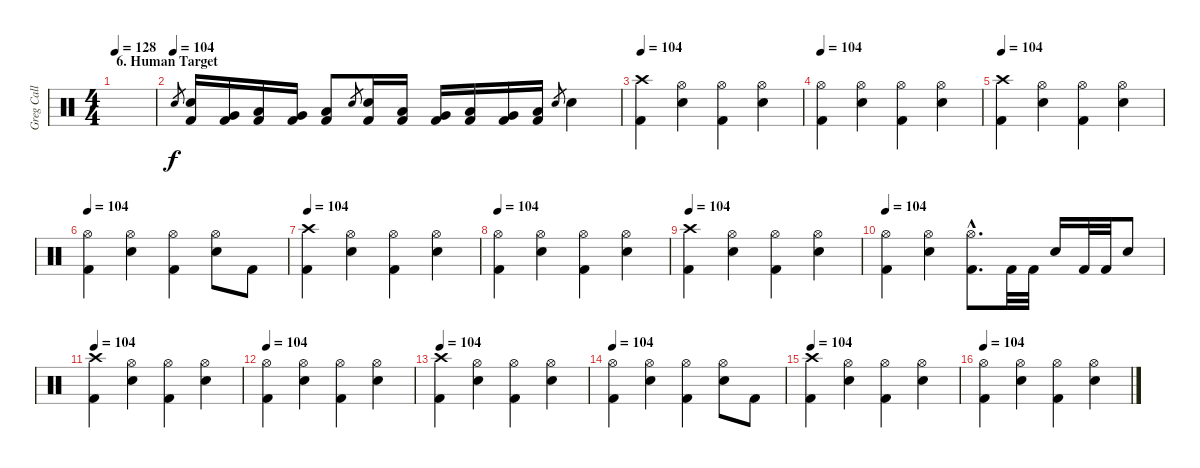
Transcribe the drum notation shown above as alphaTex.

\track ("Greg Call (Drums)" "Greg Call ") {instrument percussion}
\staff {score}
\articulation defaults
\ts (4 4)
\section ("" "6. Human Target")
\tempo 128
\tempo 104
\tempo 128
\clef neutral
\ks c
|
\tempo (104)
"Snare (hit) 2".8{gr} ("Snare (hit) 2" "Kick (hit) 2").16 ("Very Low Tom (hit)" "Kick (hit) 2").16 ("Low Floor Tom (hit)" "Kick (hit) 2").16 ("Very Low Tom (hit)" "Kick (hit) 2").16 ("Low Tom (hit)" "Kick (hit) 2").8 "Snare (hit) 2".8{gr} ("Snare (hit) 2" "Kick (hit) 2").16 ("Low Tom (hit)" "Kick (hit) 2").16 ("Very Low Tom (hit)" "Kick (hit) 2").16 ("Low Floor Tom (hit)" "Kick (hit) 2").16 ("Very Low Tom (hit)" "Kick (hit) 2").16 ("Low Tom (hit)" "Kick (hit) 2").16 "Snare (hit) 2".8{gr} "Snare (hit) 2".4 |
\tempo 104
("Crash high (hit)" "Kick (hit) 2").4 ("Hi-Hat (open)" "Snare (hit) 2").4 ("Hi-Hat (open)" "Kick (hit) 2").4 ("Hi-Hat (open)" "Snare (hit) 2").4 |
\tempo 104
("Hi-Hat (open)" "Kick (hit) 2").4 ("Hi-Hat (open)" "Snare (hit) 2").4 ("Hi-Hat (open)" "Kick (hit) 2").4 ("Hi-Hat (open)" "Snare (hit) 2").4 |
\tempo 104
("Crash high (hit)" "Kick (hit) 2").4 ("Hi-Hat (open)" "Snare (hit) 2").4 ("Hi-Hat (open)" "Kick (hit) 2").4 ("Hi-Hat (open)" "Snare (hit) 2").4 |
\tempo 104
("Hi-Hat (open)" "Kick (hit) 2").4 ("Hi-Hat (open)" "Snare (hit) 2").4 ("Hi-Hat (open)" "Kick (hit) 2").4 ("Hi-Hat (open)" "Snare (hit) 2").8 "Kick (hit) 2".8 |
\tempo 104
("Crash high (hit)" "Kick (hit) 2").4 ("Hi-Hat (open)" "Snare (hit) 2").4 ("Hi-Hat (open)" "Kick (hit) 2").4 ("Hi-Hat (open)" "Snare (hit) 2").4 |
\tempo 104
("Hi-Hat (open)" "Kick (hit) 2").4 ("Hi-Hat (open)" "Snare (hit) 2").4 ("Hi-Hat (open)" "Kick (hit) 2").4 ("Hi-Hat (open)" "Snare (hit) 2").4 |
\tempo 104
("Crash high (hit)" "Kick (hit) 2").4 ("Hi-Hat (open)" "Snare (hit) 2").4 ("Hi-Hat (open)" "Kick (hit) 2").4 ("Hi-Hat (open)" "Snare (hit) 2").4 |
\tempo 104
("Hi-Hat (open)" "Kick (hit) 2").4 ("Hi-Hat (open)" "Snare (hit) 2").4 ("Hi-Hat (open)"{hac} "Kick (hit) 2"{hac}).8{d} "Kick (hit) 2".32 "Kick (hit) 2".32 "Snare (hit) 2".16 "Kick (hit) 2".32 "Kick (hit) 2".32 "Snare (hit) 2".8 |
\tempo 104
("Crash high (hit)" "Kick (hit) 2").4 ("Hi-Hat (open)" "Snare (hit) 2").4 ("Hi-Hat (open)" "Kick (hit) 2").4 ("Hi-Hat (open)" "Snare (hit) 2").4 |
\tempo 104
("Hi-Hat (open)" "Kick (hit) 2").4 ("Hi-Hat (open)" "Snare (hit) 2").4 ("Hi-Hat (open)" "Kick (hit) 2").4 ("Hi-Hat (open)" "Snare (hit) 2").4 |
\tempo 104
("Crash high (hit)" "Kick (hit) 2").4 ("Hi-Hat (open)" "Snare (hit) 2").4 ("Hi-Hat (open)" "Kick (hit) 2").4 ("Hi-Hat (open)" "Snare (hit) 2").4 |
\tempo 104
("Hi-Hat (open)" "Kick (hit) 2").4 ("Hi-Hat (open)" "Snare (hit) 2").4 ("Hi-Hat (open)" "Kick (hit) 2").4 ("Hi-Hat (open)" "Snare (hit) 2").8 "Kick (hit) 2".8 |
\tempo 104
("Crash high (hit)" "Kick (hit) 2").4 ("Hi-Hat (open)" "Snare (hit) 2").4 ("Hi-Hat (open)" "Kick (hit) 2").4 ("Hi-Hat (open)" "Snare (hit) 2").4 |
\tempo 104
("Hi-Hat (open)" "Kick (hit) 2").4 ("Hi-Hat (open)" "Snare (hit) 2").4 ("Hi-Hat (open)" "Kick (hit) 2").4 ("Hi-Hat (open)" "Snare (hit) 2").4
